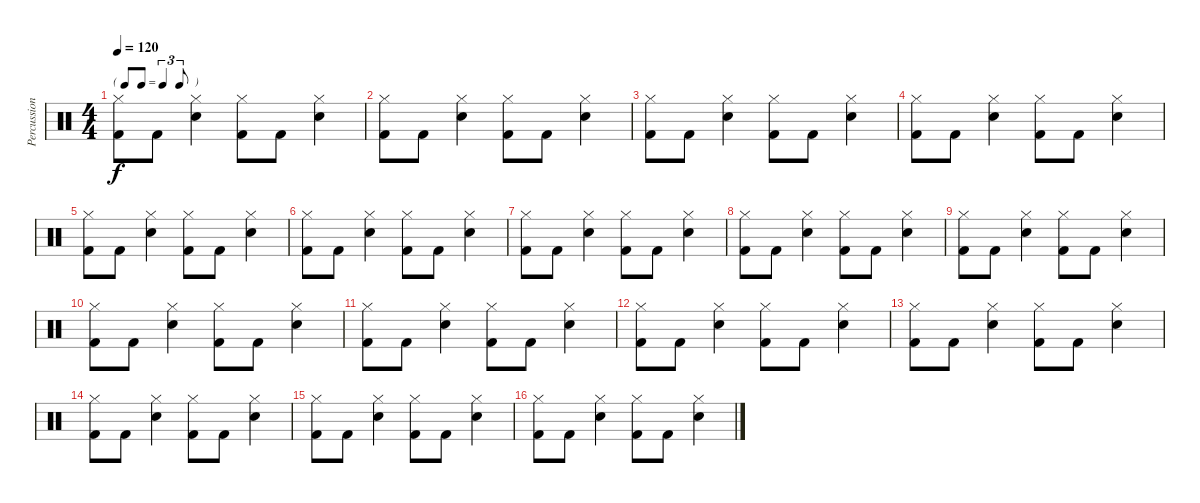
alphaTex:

\track ("Percussion" "Percussion") {instrument percussion}
\staff {score}
\articulation defaults
\ts (4 4)
\tf triplet8th
\tempo 120
\clef neutral
\ks c
("Hi-Hat (closed)" "Kick (hit) 2").8{dy f} "Kick (hit) 2".8 ("Hi-Hat (closed)" "Electric Snare (hit)").4 ("Hi-Hat (closed)" "Kick (hit) 2").8 "Kick (hit) 2".8 ("Hi-Hat (closed)" "Electric Snare (hit)").4 |
("Hi-Hat (closed)" "Kick (hit) 2").8 "Kick (hit) 2".8 ("Hi-Hat (closed)" "Electric Snare (hit)").4 ("Hi-Hat (closed)" "Kick (hit) 2").8 "Kick (hit) 2".8 ("Hi-Hat (closed)" "Electric Snare (hit)").4 |
("Hi-Hat (closed)" "Kick (hit) 2").8 "Kick (hit) 2".8 ("Hi-Hat (closed)" "Electric Snare (hit)").4 ("Hi-Hat (closed)" "Kick (hit) 2").8 "Kick (hit) 2".8 ("Hi-Hat (closed)" "Electric Snare (hit)").4 |
("Hi-Hat (closed)" "Kick (hit) 2").8 "Kick (hit) 2".8 ("Hi-Hat (closed)" "Electric Snare (hit)").4 ("Hi-Hat (closed)" "Kick (hit) 2").8 "Kick (hit) 2".8 ("Hi-Hat (closed)" "Electric Snare (hit)").4 |
("Hi-Hat (closed)" "Kick (hit) 2").8 "Kick (hit) 2".8 ("Hi-Hat (closed)" "Electric Snare (hit)").4 ("Hi-Hat (closed)" "Kick (hit) 2").8 "Kick (hit) 2".8 ("Hi-Hat (closed)" "Electric Snare (hit)").4 |
("Hi-Hat (closed)" "Kick (hit) 2").8 "Kick (hit) 2".8 ("Hi-Hat (closed)" "Electric Snare (hit)").4 ("Hi-Hat (closed)" "Kick (hit) 2").8 "Kick (hit) 2".8 ("Hi-Hat (closed)" "Electric Snare (hit)").4 |
("Hi-Hat (closed)" "Kick (hit) 2").8 "Kick (hit) 2".8 ("Hi-Hat (closed)" "Electric Snare (hit)").4 ("Hi-Hat (closed)" "Kick (hit) 2").8 "Kick (hit) 2".8 ("Hi-Hat (closed)" "Electric Snare (hit)").4 |
("Hi-Hat (closed)" "Kick (hit) 2").8 "Kick (hit) 2".8 ("Hi-Hat (closed)" "Electric Snare (hit)").4 ("Hi-Hat (closed)" "Kick (hit) 2").8 "Kick (hit) 2".8 ("Hi-Hat (closed)" "Electric Snare (hit)").4 |
("Hi-Hat (closed)" "Kick (hit) 2").8 "Kick (hit) 2".8 ("Hi-Hat (closed)" "Electric Snare (hit)").4 ("Hi-Hat (closed)" "Kick (hit) 2").8 "Kick (hit) 2".8 ("Hi-Hat (closed)" "Electric Snare (hit)").4 |
("Hi-Hat (closed)" "Kick (hit) 2").8 "Kick (hit) 2".8 ("Hi-Hat (closed)" "Electric Snare (hit)").4 ("Hi-Hat (closed)" "Kick (hit) 2").8 "Kick (hit) 2".8 ("Hi-Hat (closed)" "Electric Snare (hit)").4 |
("Hi-Hat (closed)" "Kick (hit) 2").8 "Kick (hit) 2".8 ("Hi-Hat (closed)" "Electric Snare (hit)").4 ("Hi-Hat (closed)" "Kick (hit) 2").8 "Kick (hit) 2".8 ("Hi-Hat (closed)" "Electric Snare (hit)").4 |
("Hi-Hat (closed)" "Kick (hit) 2").8 "Kick (hit) 2".8 ("Hi-Hat (closed)" "Electric Snare (hit)").4 ("Hi-Hat (closed)" "Kick (hit) 2").8 "Kick (hit) 2".8 ("Hi-Hat (closed)" "Electric Snare (hit)").4 |
("Hi-Hat (closed)" "Kick (hit) 2").8 "Kick (hit) 2".8 ("Hi-Hat (closed)" "Electric Snare (hit)").4 ("Hi-Hat (closed)" "Kick (hit) 2").8 "Kick (hit) 2".8 ("Hi-Hat (closed)" "Electric Snare (hit)").4 |
("Hi-Hat (closed)" "Kick (hit) 2").8 "Kick (hit) 2".8 ("Hi-Hat (closed)" "Electric Snare (hit)").4 ("Hi-Hat (closed)" "Kick (hit) 2").8 "Kick (hit) 2".8 ("Hi-Hat (closed)" "Electric Snare (hit)").4 |
("Hi-Hat (closed)" "Kick (hit) 2").8 "Kick (hit) 2".8 ("Hi-Hat (closed)" "Electric Snare (hit)").4 ("Hi-Hat (closed)" "Kick (hit) 2").8 "Kick (hit) 2".8 ("Hi-Hat (closed)" "Electric Snare (hit)").4 |
("Hi-Hat (closed)" "Kick (hit) 2").8 "Kick (hit) 2".8 ("Hi-Hat (closed)" "Electric Snare (hit)").4 ("Hi-Hat (closed)" "Kick (hit) 2").8 "Kick (hit) 2".8 ("Hi-Hat (closed)" "Electric Snare (hit)").4
